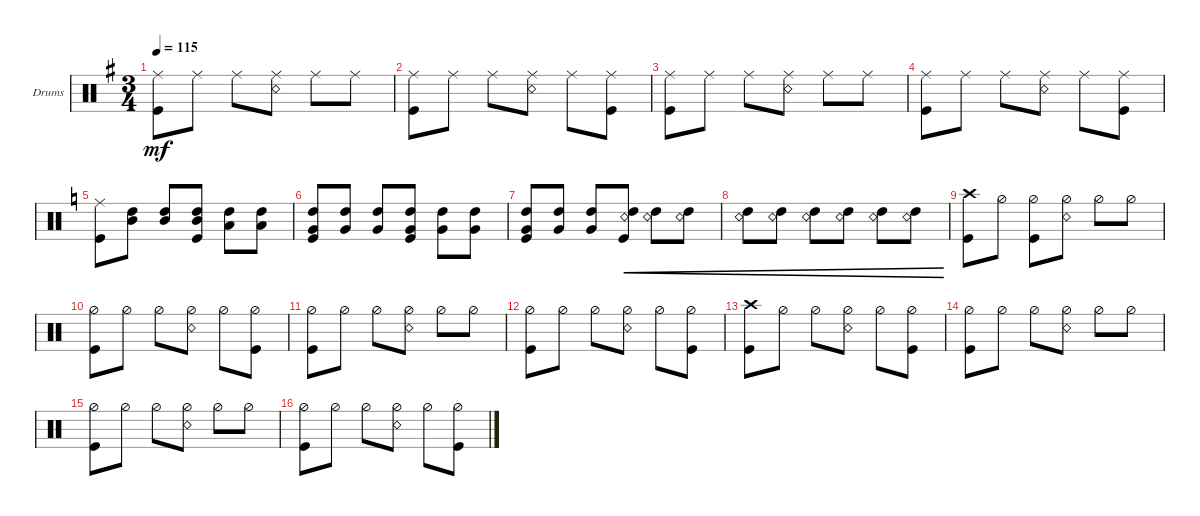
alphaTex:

\defaultSystemsLayout 4
\bracketExtendMode groupsimilarinstruments
\firstSystemTrackNameOrientation horizontal
\otherSystemsTrackNameOrientation horizontal
\track ("Drumkit" "Drums") {multiBarRest instrument percussion}
\staff {score}
\articulation defaults
\ts (3 4)
\tempo 115
\clef neutral
\ks eminor
("Kick (hit)" "Ride (middle)").8{dy mf} "Ride (middle)".8 "Ride (middle)".8 ("Ride (middle)" "Snare (rim shot)").8 "Ride (middle)".8 "Ride (middle)".8 |
("Kick (hit)" "Ride (middle)").8 "Ride (middle)".8 "Ride (middle)".8 ("Ride (middle)" "Snare (rim shot)").8 "Ride (middle)".8 ("Ride (middle)" "Kick (hit)").8 |
("Kick (hit)" "Ride (middle)").8 "Ride (middle)".8 "Ride (middle)".8 ("Ride (middle)" "Snare (rim shot)").8 "Ride (middle)".8 "Ride (middle)".8 |
("Kick (hit)" "Ride (middle)").8 "Ride (middle)".8 "Ride (middle)".8 ("Ride (middle)" "Snare (rim shot)").8 "Ride (middle)".8 ("Ride (middle)" "Kick (hit)").8 |
\ks aminor
("Kick (hit)" "Ride (middle)").8 ("High Tom (hit)" "Mid Tom (hit)").8 ("High Tom (hit)" "Mid Tom (hit)").8 ("High Tom (hit)" "Mid Tom (hit)" "Kick (hit)").8 ("High Tom (hit)" "Low Tom (hit)").8 ("High Tom (hit)" "Low Tom (hit)").8 |
("High Tom (hit)" "Very Low Tom (hit)" "Kick (hit)").8 ("Very Low Tom (hit)" "High Tom (hit)").8 ("Very Low Tom (hit)" "High Tom (hit)").8 ("High Tom (hit)" "Very Low Tom (hit)" "Kick (hit)").8 ("High Tom (hit)" "Very Low Tom (hit)").8 ("High Tom (hit)" "Very Low Tom (hit)").8 |
("High Tom (hit)" "Very Low Tom (hit)" "Kick (hit)").8 ("Very Low Tom (hit)" "High Tom (hit)").8 ("Very Low Tom (hit)" "High Tom (hit)").8 ("High Tom (hit)" "Snare (rim shot)" "Kick (hit)").8{cre} ("High Tom (hit)" "Snare (rim shot)").8{cre} ("High Tom (hit)" "Snare (rim shot)").8{cre} |
("High Tom (hit)" "Snare (rim shot)").8{cre} ("High Tom (hit)" "Snare (rim shot)").8{cre} ("High Tom (hit)" "Snare (rim shot)").8{cre} ("High Tom (hit)" "Snare (rim shot)").8{cre} ("High Tom (hit)" "Snare (rim shot)").8{cre} ("High Tom (hit)" "Snare (rim shot)").8{cre} |
("Kick (hit)" "Crash high (hit)").8 "Hi-Hat (half)".8 ("Kick (hit)" "Hi-Hat (half)").8 ("Snare (rim shot)" "Hi-Hat (half)").8 "Hi-Hat (half)".8 "Hi-Hat (half)".8 |
("Kick (hit)" "Hi-Hat (half)").8 "Hi-Hat (half)".8 "Hi-Hat (half)".8 ("Snare (rim shot)" "Hi-Hat (half)").8 "Hi-Hat (half)".8 ("Hi-Hat (half)" "Kick (hit)").8 |
("Kick (hit)" "Hi-Hat (half)").8 "Hi-Hat (half)".8 "Hi-Hat (half)".8 ("Snare (rim shot)" "Hi-Hat (half)").8 "Hi-Hat (half)".8 "Hi-Hat (half)".8 |
("Kick (hit)" "Hi-Hat (half)").8 "Hi-Hat (half)".8 "Hi-Hat (half)".8 ("Snare (rim shot)" "Hi-Hat (half)").8 "Hi-Hat (half)".8 ("Hi-Hat (half)" "Kick (hit)").8 |
("Kick (hit)" "Crash high (hit)").8 "Hi-Hat (half)".8 "Hi-Hat (half)".8 ("Snare (rim shot)" "Hi-Hat (half)").8 "Hi-Hat (half)".8 ("Hi-Hat (half)" "Kick (hit)").8 |
("Kick (hit)" "Hi-Hat (half)").8 "Hi-Hat (half)".8 "Hi-Hat (half)".8 ("Snare (rim shot)" "Hi-Hat (half)").8 "Hi-Hat (half)".8 "Hi-Hat (half)".8 |
("Kick (hit)" "Hi-Hat (half)").8 "Hi-Hat (half)".8 "Hi-Hat (half)".8 ("Snare (rim shot)" "Hi-Hat (half)").8 "Hi-Hat (half)".8 "Hi-Hat (half)".8 |
("Kick (hit)" "Hi-Hat (half)").8 "Hi-Hat (half)".8 "Hi-Hat (half)".8 ("Snare (rim shot)" "Hi-Hat (half)").8 "Hi-Hat (half)".8 ("Kick (hit)" "Hi-Hat (half)").8
